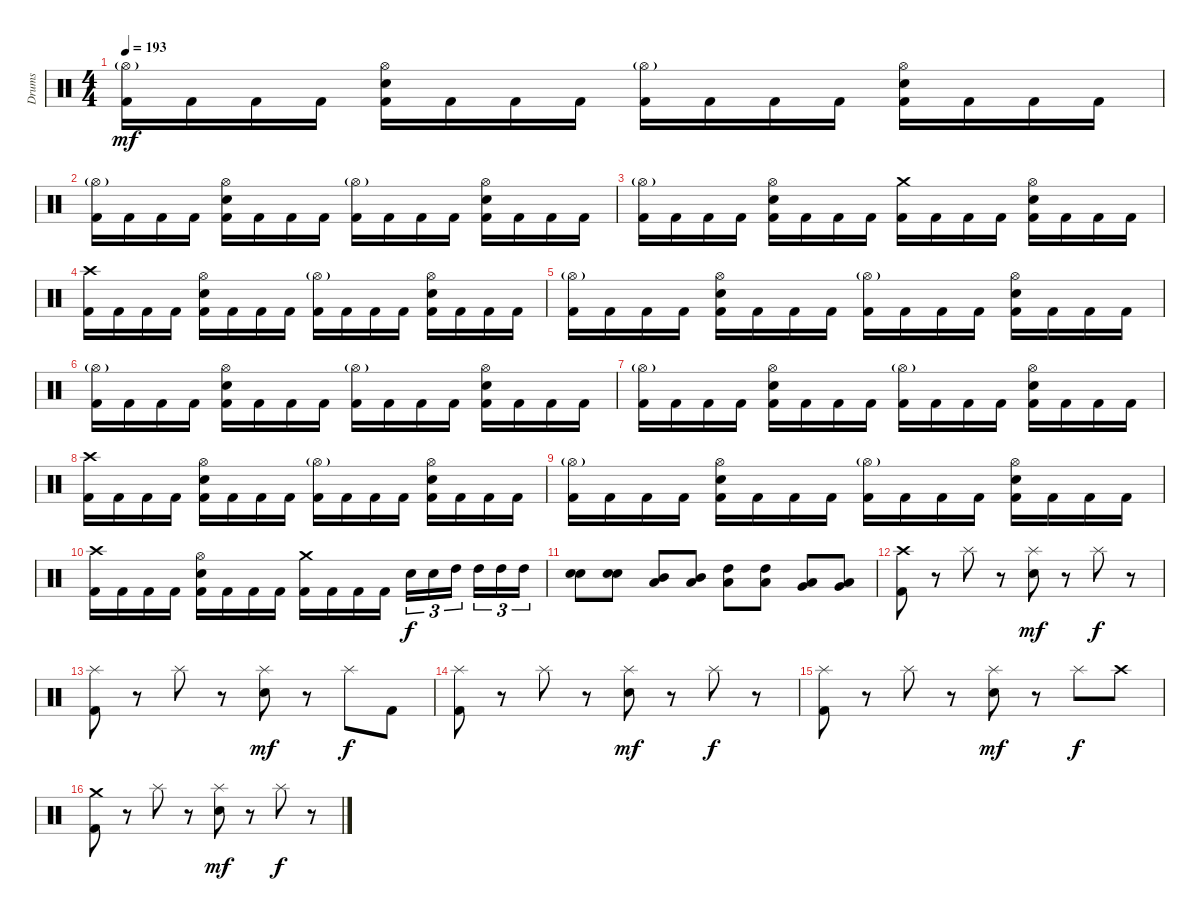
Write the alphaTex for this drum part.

\track ("Drums" "Drums") {instrument percussion}
\staff {score}
\articulation defaults
\ts (4 4)
\tempo 193
\clef neutral
\ks c
("Hi-Hat (open)"{g} "Kick (hit) 2").16{dy mf} "Kick (hit) 2".16 "Kick (hit) 2".16 "Kick (hit) 2".16 ("Hi-Hat (open)" "Electric Snare (hit)" "Kick (hit) 2").16 "Kick (hit) 2".16 "Kick (hit) 2".16 "Kick (hit) 2".16 ("Hi-Hat (open)"{g} "Kick (hit) 2").16 "Kick (hit) 2".16 "Kick (hit) 2".16 "Kick (hit) 2".16 ("Hi-Hat (open)" "Electric Snare (hit)" "Kick (hit) 2").16 "Kick (hit) 2".16 "Kick (hit) 2".16 "Kick (hit) 2".16 |
("Hi-Hat (open)"{g} "Kick (hit) 2").16 "Kick (hit) 2".16 "Kick (hit) 2".16 "Kick (hit) 2".16 ("Hi-Hat (open)" "Electric Snare (hit)" "Kick (hit) 2").16 "Kick (hit) 2".16 "Kick (hit) 2".16 "Kick (hit) 2".16 ("Hi-Hat (open)"{g} "Kick (hit) 2").16 "Kick (hit) 2".16 "Kick (hit) 2".16 "Kick (hit) 2".16 ("Hi-Hat (open)" "Electric Snare (hit)" "Kick (hit) 2").16 "Kick (hit) 2".16 "Kick (hit) 2".16 "Kick (hit) 2".16 |
("Hi-Hat (open)"{g} "Kick (hit) 2").16 "Kick (hit) 2".16 "Kick (hit) 2".16 "Kick (hit) 2".16 ("Hi-Hat (open)" "Electric Snare (hit)" "Kick (hit) 2").16 "Kick (hit) 2".16 "Kick (hit) 2".16 "Kick (hit) 2".16 ("Crash medium (hit)" "Kick (hit) 2").16 "Kick (hit) 2".16 "Kick (hit) 2".16 "Kick (hit) 2".16 ("Hi-Hat (open)" "Electric Snare (hit)" "Kick (hit) 2").16 "Kick (hit) 2".16 "Kick (hit) 2".16 "Kick (hit) 2".16 |
("Crash high (hit)" "Kick (hit) 2").16 "Kick (hit) 2".16 "Kick (hit) 2".16 "Kick (hit) 2".16 ("Hi-Hat (open)" "Electric Snare (hit)" "Kick (hit) 2").16 "Kick (hit) 2".16 "Kick (hit) 2".16 "Kick (hit) 2".16 ("Hi-Hat (open)"{g} "Kick (hit) 2").16 "Kick (hit) 2".16 "Kick (hit) 2".16 "Kick (hit) 2".16 ("Hi-Hat (open)" "Electric Snare (hit)" "Kick (hit) 2").16 "Kick (hit) 2".16 "Kick (hit) 2".16 "Kick (hit) 2".16 |
("Hi-Hat (open)"{g} "Kick (hit) 2").16 "Kick (hit) 2".16 "Kick (hit) 2".16 "Kick (hit) 2".16 ("Hi-Hat (open)" "Electric Snare (hit)" "Kick (hit) 2").16 "Kick (hit) 2".16 "Kick (hit) 2".16 "Kick (hit) 2".16 ("Hi-Hat (open)"{g} "Kick (hit) 2").16 "Kick (hit) 2".16 "Kick (hit) 2".16 "Kick (hit) 2".16 ("Hi-Hat (open)" "Electric Snare (hit)" "Kick (hit) 2").16 "Kick (hit) 2".16 "Kick (hit) 2".16 "Kick (hit) 2".16 |
("Hi-Hat (open)"{g} "Kick (hit) 2").16 "Kick (hit) 2".16 "Kick (hit) 2".16 "Kick (hit) 2".16 ("Hi-Hat (open)" "Electric Snare (hit)" "Kick (hit) 2").16 "Kick (hit) 2".16 "Kick (hit) 2".16 "Kick (hit) 2".16 ("Hi-Hat (open)"{g} "Kick (hit) 2").16 "Kick (hit) 2".16 "Kick (hit) 2".16 "Kick (hit) 2".16 ("Hi-Hat (open)" "Electric Snare (hit)" "Kick (hit) 2").16 "Kick (hit) 2".16 "Kick (hit) 2".16 "Kick (hit) 2".16 |
("Hi-Hat (open)"{g} "Kick (hit) 2").16 "Kick (hit) 2".16 "Kick (hit) 2".16 "Kick (hit) 2".16 ("Hi-Hat (open)" "Electric Snare (hit)" "Kick (hit) 2").16 "Kick (hit) 2".16 "Kick (hit) 2".16 "Kick (hit) 2".16 ("Hi-Hat (open)"{g} "Kick (hit) 2").16 "Kick (hit) 2".16 "Kick (hit) 2".16 "Kick (hit) 2".16 ("Hi-Hat (open)" "Electric Snare (hit)" "Kick (hit) 2").16 "Kick (hit) 2".16 "Kick (hit) 2".16 "Kick (hit) 2".16 |
("Crash high (hit)" "Kick (hit) 2").16 "Kick (hit) 2".16 "Kick (hit) 2".16 "Kick (hit) 2".16 ("Hi-Hat (open)" "Electric Snare (hit)" "Kick (hit) 2").16 "Kick (hit) 2".16 "Kick (hit) 2".16 "Kick (hit) 2".16 ("Hi-Hat (open)"{g} "Kick (hit) 2").16 "Kick (hit) 2".16 "Kick (hit) 2".16 "Kick (hit) 2".16 ("Hi-Hat (open)" "Electric Snare (hit)" "Kick (hit) 2").16 "Kick (hit) 2".16 "Kick (hit) 2".16 "Kick (hit) 2".16 |
("Hi-Hat (open)"{g} "Kick (hit) 2").16 "Kick (hit) 2".16 "Kick (hit) 2".16 "Kick (hit) 2".16 ("Hi-Hat (open)" "Electric Snare (hit)" "Kick (hit) 2").16 "Kick (hit) 2".16 "Kick (hit) 2".16 "Kick (hit) 2".16 ("Hi-Hat (open)"{g} "Kick (hit) 2").16 "Kick (hit) 2".16 "Kick (hit) 2".16 "Kick (hit) 2".16 ("Hi-Hat (open)" "Electric Snare (hit)" "Kick (hit) 2").16 "Kick (hit) 2".16 "Kick (hit) 2".16 "Kick (hit) 2".16 |
("Crash high (hit)" "Kick (hit) 2").16 "Kick (hit) 2".16 "Kick (hit) 2".16 "Kick (hit) 2".16 ("Hi-Hat (open)" "Electric Snare (hit)" "Kick (hit) 2").16 "Kick (hit) 2".16 "Kick (hit) 2".16 "Kick (hit) 2".16 ("Crash medium (hit)" "Kick (hit) 2").16 "Kick (hit) 2".16 "Kick (hit) 2".16 "Kick (hit) 2".16 "Electric Snare (hit)".16{tu (3 2) dy f} "Electric Snare (hit)".16{tu (3 2)} "High Tom (hit)".16{tu (3 2) beam splitsecondary} "High Tom (hit)".16{tu (3 2)} "High Tom (hit)".16{tu (3 2)} "High Tom (hit)".16{tu (3 2)} |
("Electric Snare (hit)" "Electric Snare (hit)").8 ("Electric Snare (hit)" "Electric Snare (hit)").8 ("Low Tom (hit)" "Mid Tom (hit)").8 ("Low Tom (hit)" "Mid Tom (hit)").8 ("Low Tom (hit)" "High Tom (hit)").8 ("Low Tom (hit)" "High Tom (hit)").8 ("Very Low Tom (hit)" "Low Tom (hit)").8 ("Very Low Tom (hit)" "Low Tom (hit)").8 |
("Crash high (hit)" "Kick (hit) 2").8 r.8 "Splash (hit)".8 r.8 ("Splash (hit)" "Electric Snare (hit)").8{dy mf} r.8 "Splash (hit)".8{dy f} r.8 |
("Splash (hit)" "Kick (hit) 2").8 r.8 "Splash (hit)".8 r.8 ("Splash (hit)" "Electric Snare (hit)").8{dy mf} r.8 "Splash (hit)".8{dy f} "Kick (hit) 2".8 |
("Splash (hit)" "Kick (hit) 2").8 r.8 "Splash (hit)".8 r.8 ("Splash (hit)" "Electric Snare (hit)").8{dy mf} r.8 "Splash (hit)".8{dy f} r.8 |
("Splash (hit)" "Kick (hit) 2").8 r.8 "Splash (hit)".8 r.8 ("Splash (hit)" "Electric Snare (hit)").8{dy mf} r.8 "Splash (hit)".8{dy f} "Crash high (hit)".8 |
("Crash medium (hit)" "Kick (hit) 2").8 r.8 "Splash (hit)".8 r.8 ("Splash (hit)" "Electric Snare (hit)").8{dy mf} r.8 "Splash (hit)".8{dy f} r.8
